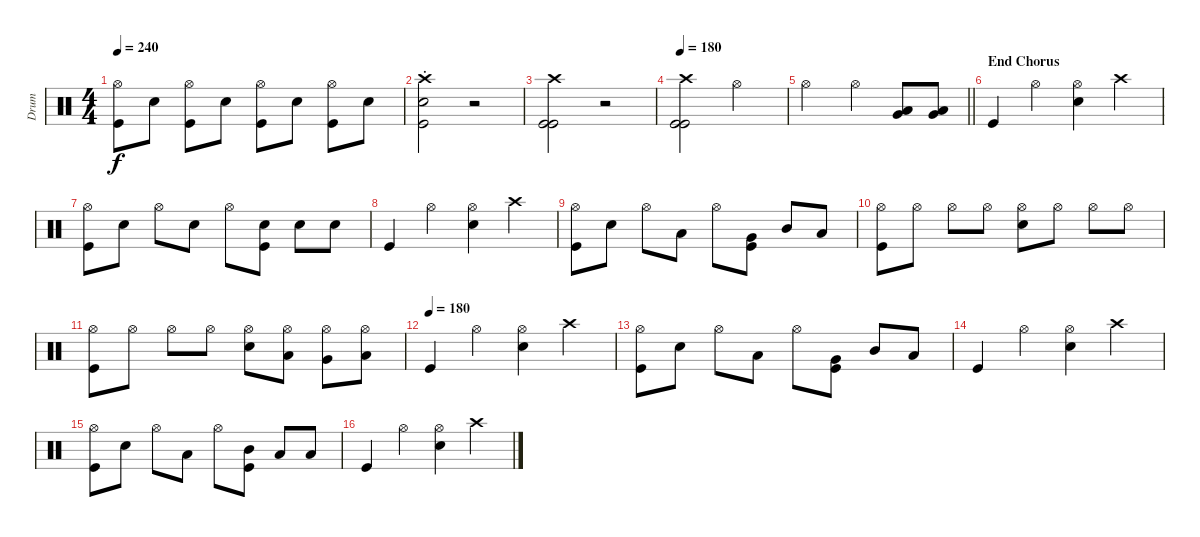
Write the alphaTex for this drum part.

\track ("Drum" "Drum") {instrument percussion}
\staff {score}
\articulation defaults
\ts (4 4)
\tempo 240
\clef neutral
\ks c
("Hi-Hat (open)" "Kick (hit)").8{dy f} "Snare (hit) 2".8 ("Hi-Hat (open)" "Kick (hit)").8 "Snare (hit) 2".8 ("Hi-Hat (open)" "Kick (hit)").8 "Snare (hit) 2".8 ("Hi-Hat (open)" "Kick (hit)").8 "Snare (hit) 2".8 |
("Crash high (hit)"{st} "Snare (hit) 2" "Kick (hit)").2 r.2 |
("Crash high (hit)" "Kick (hit)" "Kick (hit)").2 r.2 |
\tempo 180
("Crash high (hit)" "Kick (hit)" "Kick (hit)").2 "Hi-Hat (open)".2 |
\barLineRight lightlight "Hi-Hat (open)".2 "Hi-Hat (open)".4
("Low Floor Tom (hit)" "Very Low Tom (hit)").8 ("Low Floor Tom (hit)" "Very Low Tom (hit)").8 |
\section ("" "End Chorus")
"Kick (hit)".4 "Hi-Hat (open)".4 ("Hi-Hat (open)" "Snare (hit) 2").4 "Crash high (hit)".4 |
("Hi-Hat (open)" "Kick (hit)").8 "Snare (hit) 2".8 "Hi-Hat (open)".8 "Snare (hit) 2".8 "Hi-Hat (open)".8 ("Snare (hit) 2" "Kick (hit)").8 "Snare (hit) 2".8 "Snare (hit) 2".8 |
"Kick (hit)".4 "Hi-Hat (open)".4 ("Hi-Hat (open)" "Snare (hit) 2").4 "Crash high (hit)".4 |
("Hi-Hat (open)" "Kick (hit)").8 "Snare (hit) 2".8 "Hi-Hat (open)".8 "Low Tom (hit)".8 "Hi-Hat (open)".8 ("Very Low Tom (hit)" "Kick (hit)").8 "Mid Tom (hit)".8 "Low Tom (hit)".8 |
("Hi-Hat (open)" "Kick (hit)").8 "Hi-Hat (open)".8 "Hi-Hat (open)".8 "Hi-Hat (open)".8 ("Hi-Hat (open)" "Snare (hit) 2").8 "Hi-Hat (open)".8 "Hi-Hat (open)".8 "Hi-Hat (open)".8 |
("Hi-Hat (open)" "Kick (hit)").8 "Hi-Hat (open)".8 "Hi-Hat (open)".8 "Hi-Hat (open)".8 ("Hi-Hat (open)" "Snare (hit) 2").8 ("Hi-Hat (open)" "Low Tom (hit)").8 ("Hi-Hat (open)" "Very Low Tom (hit)").8 ("Hi-Hat (open)" "Low Floor Tom (hit)").8 |
\tempo (180)
"Kick (hit)".4 "Hi-Hat (open)".4 ("Hi-Hat (open)" "Snare (hit) 2").4 "Crash high (hit)".4 |
("Hi-Hat (open)" "Kick (hit)").8 "Snare (hit) 2".8 "Hi-Hat (open)".8 "Low Tom (hit)".8 "Hi-Hat (open)".8 ("Very Low Tom (hit)" "Kick (hit)").8 "Mid Tom (hit)".8 "Low Tom (hit)".8 |
"Kick (hit)".4 "Hi-Hat (open)".4 ("Hi-Hat (open)" "Snare (hit) 2").4 "Crash high (hit)".4 |
("Hi-Hat (open)" "Kick (hit)").8 "Snare (hit) 2".8 "Hi-Hat (open)".8 "Low Tom (hit)".8 "Hi-Hat (open)".8 ("Mid Tom (hit)" "Kick (hit)").8 "Low Tom (hit)".8 "Low Floor Tom (hit)".8 |
"Kick (hit)".4 "Hi-Hat (open)".4 ("Hi-Hat (open)" "Snare (hit) 2").4 "Crash high (hit)".4
